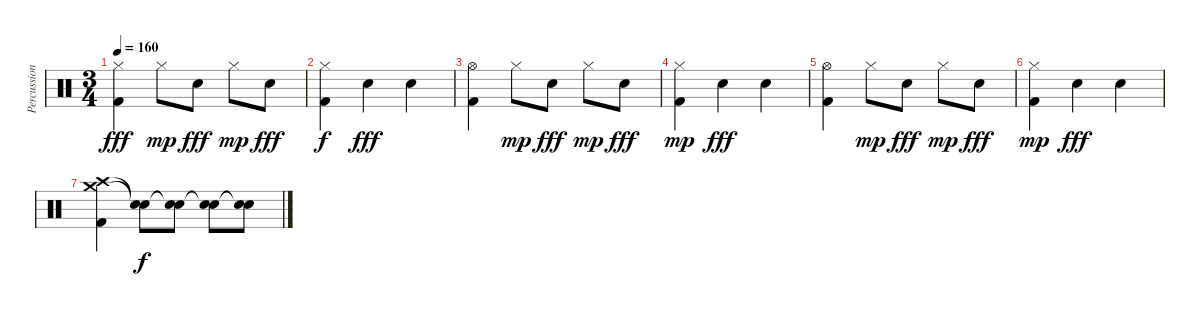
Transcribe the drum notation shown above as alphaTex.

\track ("Percussion" "Percussion") {solo instrument percussion}
\staff {score}
\articulation defaults
\ts (3 4)
\tempo 160
\clef neutral
\ks c
("Hi-Hat (closed)" "Kick (hit) 2").4{dy fff} "Hi-Hat (closed)".8{dy mp} "Electric Snare (hit)".8{dy fff} "Hi-Hat (closed)".8{dy mp} "Electric Snare (hit)".8{dy fff} |
("Hi-Hat (closed)" "Kick (hit) 2").4{dy f} "Electric Snare (hit)".4{dy fff} "Electric Snare (hit)".4 |
("Hi-Hat (open)" "Kick (hit) 2").4 "Hi-Hat (closed)".8{dy mp} "Electric Snare (hit)".8{dy fff} "Hi-Hat (closed)".8{dy mp} "Electric Snare (hit)".8{dy fff} |
("Hi-Hat (closed)" "Kick (hit) 2").4{dy mp} "Electric Snare (hit)".4{dy fff} "Electric Snare (hit)".4 |
("Hi-Hat (open)" "Kick (hit) 2").4 "Hi-Hat (closed)".8{dy mp} "Electric Snare (hit)".8{dy fff} "Hi-Hat (closed)".8{dy mp} "Electric Snare (hit)".8{dy fff} |
("Hi-Hat (closed)" "Kick (hit) 2").4{dy mp} "Electric Snare (hit)".4{dy fff} "Electric Snare (hit)".4 |
("Crash medium (hit)" "Crash high (hit)" "Kick (hit) 2").4 ("Snare (hit)"{t} "Snare (hit)"{t}).8{dy f} ("Snare (hit)"{t} "Snare (hit)"{t}).8 ("Snare (hit)"{t} "Snare (hit)"{t}).8 ("Snare (hit)"{t} "Snare (hit)"{t}).8
